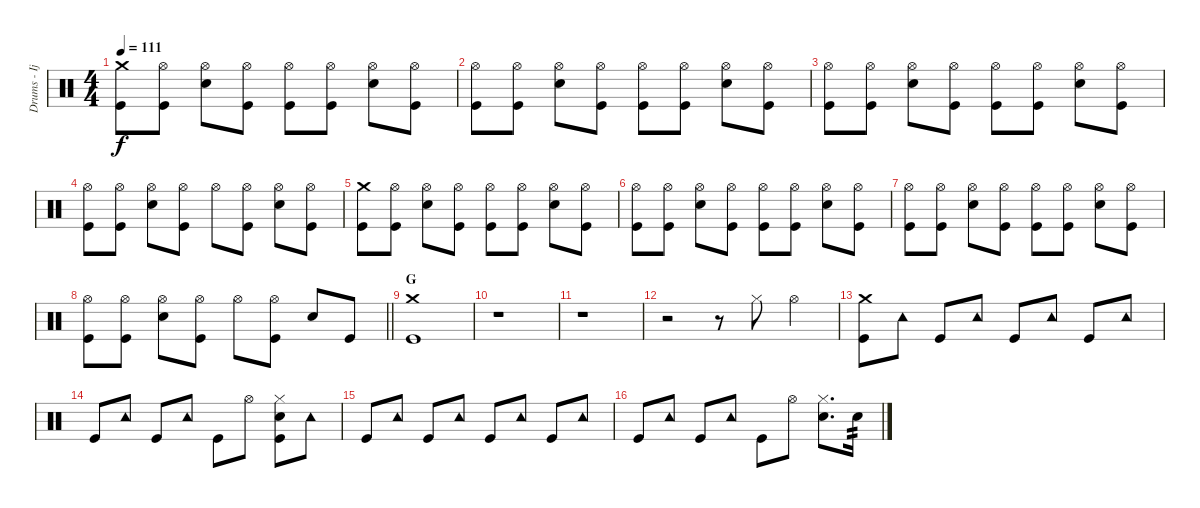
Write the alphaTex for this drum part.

\track ("Drums - Ijichi" "Drums - Ij") {instrument percussion}
\staff {score}
\articulation defaults
\ts (4 4)
\tempo 111
\clef neutral
\ks c
("Crash medium (hit)" "Kick (hit)").8{dy f} ("Hi-Hat (open)" "Kick (hit)").8 ("Hi-Hat (open)" "Electric Snare (hit)").8 ("Hi-Hat (open)" "Kick (hit)").8 ("Hi-Hat (open)" "Kick (hit)").8 ("Hi-Hat (open)" "Kick (hit)").8 ("Hi-Hat (open)" "Electric Snare (hit)").8 ("Hi-Hat (open)" "Kick (hit)").8 |
("Hi-Hat (open)" "Kick (hit)").8 ("Hi-Hat (open)" "Kick (hit)").8 ("Hi-Hat (open)" "Electric Snare (hit)").8 ("Hi-Hat (open)" "Kick (hit)").8 ("Hi-Hat (open)" "Kick (hit)").8 ("Hi-Hat (open)" "Kick (hit)").8 ("Hi-Hat (open)" "Electric Snare (hit)").8 ("Hi-Hat (open)" "Kick (hit)").8 |
("Hi-Hat (open)" "Kick (hit)").8 ("Hi-Hat (open)" "Kick (hit)").8 ("Hi-Hat (open)" "Electric Snare (hit)").8 ("Hi-Hat (open)" "Kick (hit)").8 ("Hi-Hat (open)" "Kick (hit)").8 ("Hi-Hat (open)" "Kick (hit)").8 ("Hi-Hat (open)" "Electric Snare (hit)").8 ("Hi-Hat (open)" "Kick (hit)").8 |
("Hi-Hat (open)" "Kick (hit)").8 ("Hi-Hat (open)" "Kick (hit)").8 ("Hi-Hat (open)" "Electric Snare (hit)").8 ("Hi-Hat (open)" "Kick (hit)").8 "Hi-Hat (open)".8 ("Hi-Hat (open)" "Kick (hit)").8 ("Hi-Hat (open)" "Electric Snare (hit)").8 ("Hi-Hat (open)" "Kick (hit)").8 |
("Crash medium (hit)" "Kick (hit)").8 ("Hi-Hat (open)" "Kick (hit)").8 ("Hi-Hat (open)" "Electric Snare (hit)").8 ("Hi-Hat (open)" "Kick (hit)").8 ("Hi-Hat (open)" "Kick (hit)").8 ("Hi-Hat (open)" "Kick (hit)").8 ("Hi-Hat (open)" "Electric Snare (hit)").8 ("Hi-Hat (open)" "Kick (hit)").8 |
("Hi-Hat (open)" "Kick (hit)").8 ("Hi-Hat (open)" "Kick (hit)").8 ("Hi-Hat (open)" "Electric Snare (hit)").8 ("Hi-Hat (open)" "Kick (hit)").8 ("Hi-Hat (open)" "Kick (hit)").8 ("Hi-Hat (open)" "Kick (hit)").8 ("Hi-Hat (open)" "Electric Snare (hit)").8 ("Hi-Hat (open)" "Kick (hit)").8 |
("Hi-Hat (open)" "Kick (hit)").8 ("Hi-Hat (open)" "Kick (hit)").8 ("Hi-Hat (open)" "Electric Snare (hit)").8 ("Hi-Hat (open)" "Kick (hit)").8 ("Hi-Hat (open)" "Kick (hit)").8 ("Hi-Hat (open)" "Kick (hit)").8 ("Hi-Hat (open)" "Electric Snare (hit)").8 ("Hi-Hat (open)" "Kick (hit)").8 |
\barLineRight lightlight
("Hi-Hat (open)" "Kick (hit)").8 ("Hi-Hat (open)" "Kick (hit)").8 ("Hi-Hat (open)" "Electric Snare (hit)").8 ("Hi-Hat (open)" "Kick (hit)").8 "Hi-Hat (open)".8 ("Hi-Hat (open)" "Kick (hit)").8 "Electric Snare (hit)".8 "Kick (hit)".8 |
\section ("" "G")
("Crash medium (hit)" "Kick (hit)").1 |
r.1 |
r.1 |
r.2 r.8 "Hi-Hat (closed)".8 "Hi-Hat (open)".4 |
("Crash medium (hit)" "Kick (hit)").8 "Tambourine (hit)".8 "Kick (hit)".8 "Tambourine (hit)".8 "Kick (hit)".8 "Tambourine (hit)".8 "Kick (hit)".8 "Tambourine (hit)".8 |
"Kick (hit)".8 "Tambourine (hit)".8 "Kick (hit)".8 "Tambourine (hit)".8 "Kick (hit)".8 "Hi-Hat (open)".8 ("Hi-Hat (closed)" "Electric Snare (hit)" "Kick (hit)").8 "Tambourine (hit)".8 |
"Kick (hit)".8 "Tambourine (hit)".8 "Kick (hit)".8 "Tambourine (hit)".8 "Kick (hit)".8 "Tambourine (hit)".8 "Kick (hit)".8 "Tambourine (hit)".8 |
"Kick (hit)".8 "Tambourine (hit)".8 "Kick (hit)".8 "Tambourine (hit)".8 "Kick (hit)".8 "Hi-Hat (open)".8 ("Hi-Hat (closed)" "Electric Snare (hit)").8{d} "Electric Snare (hit)".16{tp 2}
